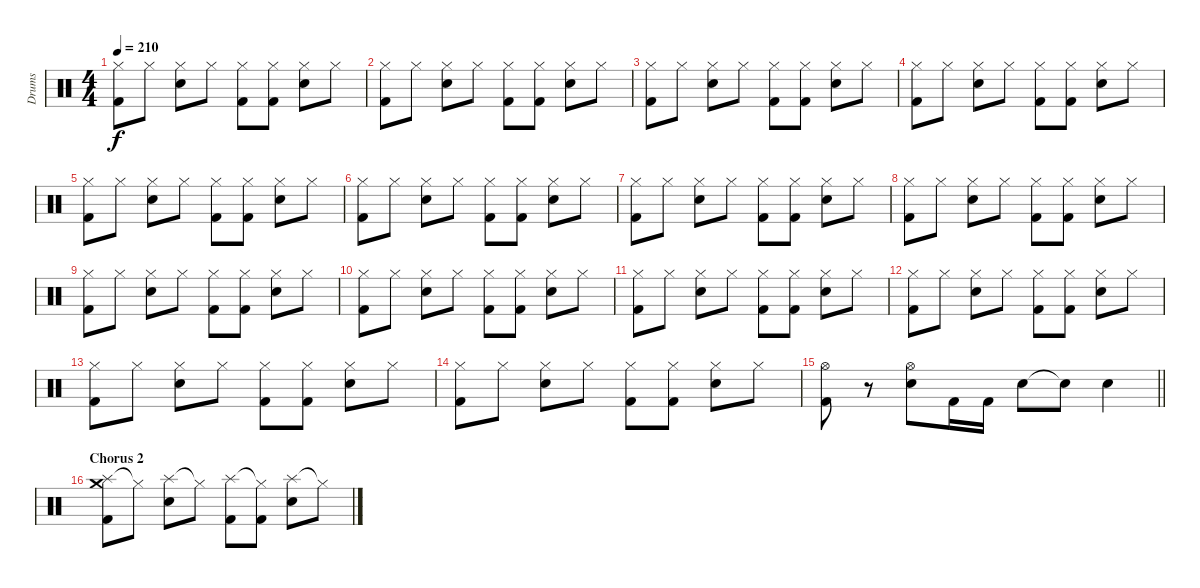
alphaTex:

\track ("Drums" "Drums") {instrument percussion}
\staff {score}
\articulation defaults
\ts (4 4)
\tempo 210
\clef neutral
\ks c
("Hi-Hat (closed)" "Kick (hit) 2").8{dy f} "Hi-Hat (closed)".8 ("Hi-Hat (closed)" "Electric Snare (hit)").8 "Hi-Hat (closed)".8 ("Hi-Hat (closed)" "Kick (hit) 2").8 ("Hi-Hat (closed)" "Kick (hit) 2").8 ("Hi-Hat (closed)" "Electric Snare (hit)").8 "Hi-Hat (closed)".8 |
("Hi-Hat (closed)" "Kick (hit) 2").8 "Hi-Hat (closed)".8 ("Hi-Hat (closed)" "Electric Snare (hit)").8 "Hi-Hat (closed)".8 ("Hi-Hat (closed)" "Kick (hit) 2").8 ("Hi-Hat (closed)" "Kick (hit) 2").8 ("Hi-Hat (closed)" "Electric Snare (hit)").8 "Hi-Hat (closed)".8 |
("Hi-Hat (closed)" "Kick (hit) 2").8 "Hi-Hat (closed)".8 ("Hi-Hat (closed)" "Electric Snare (hit)").8 "Hi-Hat (closed)".8 ("Hi-Hat (closed)" "Kick (hit) 2").8 ("Hi-Hat (closed)" "Kick (hit) 2").8 ("Hi-Hat (closed)" "Electric Snare (hit)").8 "Hi-Hat (closed)".8 |
("Hi-Hat (closed)" "Kick (hit) 2").8 "Hi-Hat (closed)".8 ("Hi-Hat (closed)" "Electric Snare (hit)").8 "Hi-Hat (closed)".8 ("Hi-Hat (closed)" "Kick (hit) 2").8 ("Hi-Hat (closed)" "Kick (hit) 2").8 ("Hi-Hat (closed)" "Electric Snare (hit)").8 "Hi-Hat (closed)".8 |
("Hi-Hat (closed)" "Kick (hit) 2").8 "Hi-Hat (closed)".8 ("Hi-Hat (closed)" "Electric Snare (hit)").8 "Hi-Hat (closed)".8 ("Hi-Hat (closed)" "Kick (hit) 2").8 ("Hi-Hat (closed)" "Kick (hit) 2").8 ("Hi-Hat (closed)" "Electric Snare (hit)").8 "Hi-Hat (closed)".8 |
("Hi-Hat (closed)" "Kick (hit) 2").8 "Hi-Hat (closed)".8 ("Hi-Hat (closed)" "Electric Snare (hit)").8 "Hi-Hat (closed)".8 ("Hi-Hat (closed)" "Kick (hit) 2").8 ("Hi-Hat (closed)" "Kick (hit) 2").8 ("Hi-Hat (closed)" "Electric Snare (hit)").8 "Hi-Hat (closed)".8 |
("Hi-Hat (closed)" "Kick (hit) 2").8 "Hi-Hat (closed)".8 ("Hi-Hat (closed)" "Electric Snare (hit)").8 "Hi-Hat (closed)".8 ("Hi-Hat (closed)" "Kick (hit) 2").8 ("Hi-Hat (closed)" "Kick (hit) 2").8 ("Hi-Hat (closed)" "Electric Snare (hit)").8 "Hi-Hat (closed)".8 |
("Hi-Hat (closed)" "Kick (hit) 2").8 "Hi-Hat (closed)".8 ("Hi-Hat (closed)" "Electric Snare (hit)").8 "Hi-Hat (closed)".8 ("Hi-Hat (closed)" "Kick (hit) 2").8 ("Hi-Hat (closed)" "Kick (hit) 2").8 ("Hi-Hat (closed)" "Electric Snare (hit)").8 "Hi-Hat (closed)".8 |
("Hi-Hat (closed)" "Kick (hit) 2").8 "Hi-Hat (closed)".8 ("Hi-Hat (closed)" "Electric Snare (hit)").8 "Hi-Hat (closed)".8 ("Hi-Hat (closed)" "Kick (hit) 2").8 ("Hi-Hat (closed)" "Kick (hit) 2").8 ("Hi-Hat (closed)" "Electric Snare (hit)").8 "Hi-Hat (closed)".8 |
("Hi-Hat (closed)" "Kick (hit) 2").8 "Hi-Hat (closed)".8 ("Hi-Hat (closed)" "Electric Snare (hit)").8 "Hi-Hat (closed)".8 ("Hi-Hat (closed)" "Kick (hit) 2").8 ("Hi-Hat (closed)" "Kick (hit) 2").8 ("Hi-Hat (closed)" "Electric Snare (hit)").8 "Hi-Hat (closed)".8 |
("Hi-Hat (closed)" "Kick (hit) 2").8 "Hi-Hat (closed)".8 ("Hi-Hat (closed)" "Electric Snare (hit)").8 "Hi-Hat (closed)".8 ("Hi-Hat (closed)" "Kick (hit) 2").8 ("Hi-Hat (closed)" "Kick (hit) 2").8 ("Hi-Hat (closed)" "Electric Snare (hit)").8 "Hi-Hat (closed)".8 |
("Hi-Hat (closed)" "Kick (hit) 2").8 "Hi-Hat (closed)".8 ("Hi-Hat (closed)" "Electric Snare (hit)").8 "Hi-Hat (closed)".8 ("Hi-Hat (closed)" "Kick (hit) 2").8 ("Hi-Hat (closed)" "Kick (hit) 2").8 ("Hi-Hat (closed)" "Electric Snare (hit)").8 "Hi-Hat (closed)".8 |
("Hi-Hat (closed)" "Kick (hit) 2").8 "Hi-Hat (closed)".8 ("Hi-Hat (closed)" "Electric Snare (hit)").8 "Hi-Hat (closed)".8 ("Hi-Hat (closed)" "Kick (hit) 2").8 ("Hi-Hat (closed)" "Kick (hit) 2").8 ("Hi-Hat (closed)" "Electric Snare (hit)").8 "Hi-Hat (closed)".8 |
("Hi-Hat (closed)" "Kick (hit) 2").8 "Hi-Hat (closed)".8 ("Hi-Hat (closed)" "Electric Snare (hit)").8 "Hi-Hat (closed)".8 ("Hi-Hat (closed)" "Kick (hit) 2").8 ("Hi-Hat (closed)" "Kick (hit) 2").8 ("Hi-Hat (closed)" "Electric Snare (hit)").8 "Hi-Hat (closed)".8 |
\barLineRight lightlight
("Hi-Hat (open)" "Kick (hit) 2").8 r.8 ("Hi-Hat (open)" "Electric Snare (hit)").8 "Kick (hit) 2".16 "Kick (hit) 2".16 "Electric Snare (hit)".8 "Snare (hit)"{t}.8 "Electric Snare (hit)".4 |
\section ("" "Chorus 2")
("Splash (hit)" "Crash medium (hit)" "Kick (hit) 2").8 "Hi-Hat (closed)"{t}.8 ("Splash (hit)" "Electric Snare (hit)").8 "Hi-Hat (closed)"{t}.8 ("Splash (hit)" "Kick (hit) 2").8 ("Hi-Hat (closed)"{t} "Kick (hit) 2").8 ("Splash (hit)" "Electric Snare (hit)").8 "Hi-Hat (closed)"{t}.8
